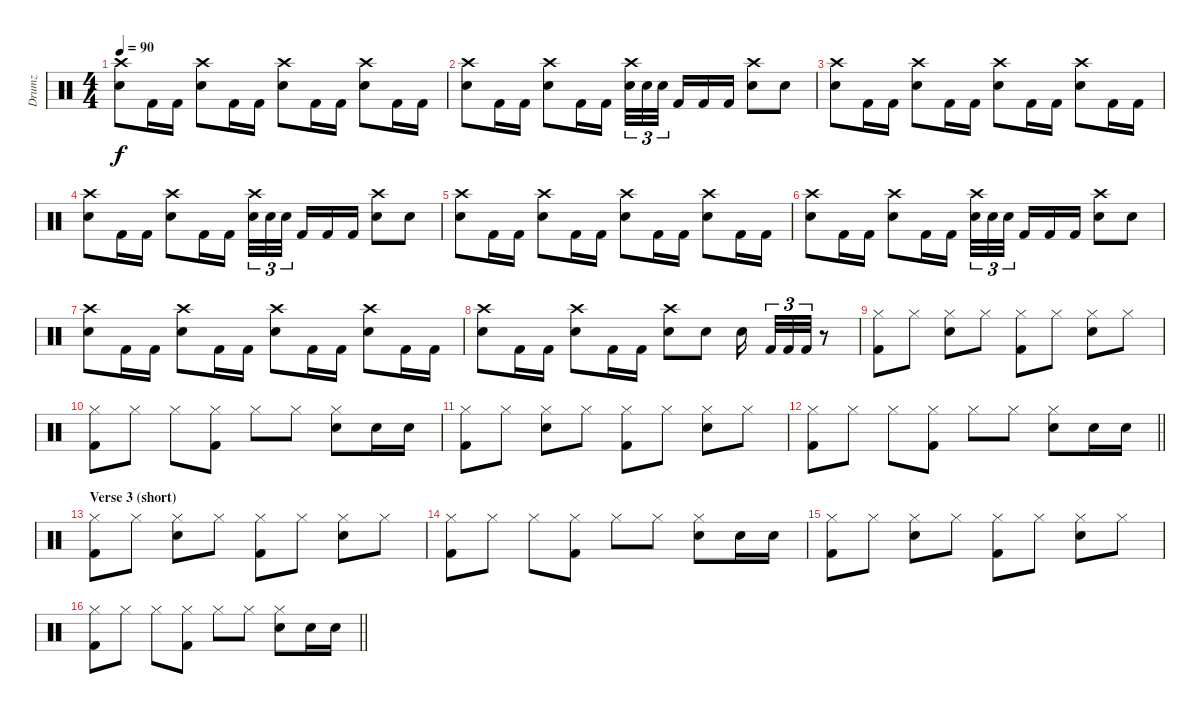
\track ("Drumz" "Drumz") {instrument percussion}
\staff {score}
\articulation defaults
\ts (4 4)
\tempo 90
\clef neutral
\ks c
("Crash high (hit)" "Snare (hit) 2").8{dy f} "Kick (hit) 2".16 "Kick (hit) 2".16 ("Crash high (hit)" "Snare (hit) 2").8 "Kick (hit) 2".16 "Kick (hit) 2".16 ("Crash high (hit)" "Snare (hit) 2").8 "Kick (hit) 2".16 "Kick (hit) 2".16 ("Crash high (hit)" "Snare (hit) 2").8 "Kick (hit) 2".16 "Kick (hit) 2".16 |
("Crash high (hit)" "Snare (hit) 2").8 "Kick (hit) 2".16 "Kick (hit) 2".16 ("Crash high (hit)" "Snare (hit) 2").8 "Kick (hit) 2".16 "Kick (hit) 2".16 ("Crash high (hit)" "Snare (hit) 2").32{tu (3 2)} "Snare (hit) 2".32{tu (3 2)} "Snare (hit) 2".32{tu (3 2) beam splitsecondary} "Kick (hit) 2".16 "Kick (hit) 2".16 "Kick (hit) 2".16 ("Crash high (hit)" "Snare (hit) 2").8 "Snare (hit) 2".8 |
("Crash high (hit)" "Snare (hit) 2").8 "Kick (hit) 2".16 "Kick (hit) 2".16 ("Crash high (hit)" "Snare (hit) 2").8 "Kick (hit) 2".16 "Kick (hit) 2".16 ("Crash high (hit)" "Snare (hit) 2").8 "Kick (hit) 2".16 "Kick (hit) 2".16 ("Crash high (hit)" "Snare (hit) 2").8 "Kick (hit) 2".16 "Kick (hit) 2".16 |
("Crash high (hit)" "Snare (hit) 2").8 "Kick (hit) 2".16 "Kick (hit) 2".16 ("Crash high (hit)" "Snare (hit) 2").8 "Kick (hit) 2".16 "Kick (hit) 2".16 ("Crash high (hit)" "Snare (hit) 2").32{tu (3 2)} "Snare (hit) 2".32{tu (3 2)} "Snare (hit) 2".32{tu (3 2) beam splitsecondary} "Kick (hit) 2".16 "Kick (hit) 2".16 "Kick (hit) 2".16 ("Crash high (hit)" "Snare (hit) 2").8 "Snare (hit) 2".8 |
("Crash high (hit)" "Snare (hit) 2").8 "Kick (hit) 2".16 "Kick (hit) 2".16 ("Crash high (hit)" "Snare (hit) 2").8 "Kick (hit) 2".16 "Kick (hit) 2".16 ("Crash high (hit)" "Snare (hit) 2").8 "Kick (hit) 2".16 "Kick (hit) 2".16 ("Crash high (hit)" "Snare (hit) 2").8 "Kick (hit) 2".16 "Kick (hit) 2".16 |
("Crash high (hit)" "Snare (hit) 2").8 "Kick (hit) 2".16 "Kick (hit) 2".16 ("Crash high (hit)" "Snare (hit) 2").8 "Kick (hit) 2".16 "Kick (hit) 2".16 ("Crash high (hit)" "Snare (hit) 2").32{tu (3 2)} "Snare (hit) 2".32{tu (3 2)} "Snare (hit) 2".32{tu (3 2) beam splitsecondary} "Kick (hit) 2".16 "Kick (hit) 2".16 "Kick (hit) 2".16 ("Crash high (hit)" "Snare (hit) 2").8 "Snare (hit) 2".8 |
("Crash high (hit)" "Snare (hit) 2").8 "Kick (hit) 2".16 "Kick (hit) 2".16 ("Crash high (hit)" "Snare (hit) 2").8 "Kick (hit) 2".16 "Kick (hit) 2".16 ("Crash high (hit)" "Snare (hit) 2").8 "Kick (hit) 2".16 "Kick (hit) 2".16 ("Crash high (hit)" "Snare (hit) 2").8 "Kick (hit) 2".16 "Kick (hit) 2".16 |
("Crash high (hit)" "Snare (hit) 2").8 "Kick (hit) 2".16 "Kick (hit) 2".16 ("Crash high (hit)" "Snare (hit) 2").8 "Kick (hit) 2".16 "Kick (hit) 2".16 ("Crash high (hit)" "Snare (hit) 2").8 "Snare (hit) 2".8 "Snare (hit) 2".16{beam splitsecondary} "Kick (hit) 2".32{tu (3 2)} "Kick (hit) 2".32{tu (3 2)} "Kick (hit) 2".32{tu (3 2)} r.8 |
("Hi-Hat (closed)" "Kick (hit) 2").8 "Hi-Hat (closed)".8 ("Hi-Hat (closed)" "Snare (hit) 2").8 "Hi-Hat (closed)".8 ("Hi-Hat (closed)" "Kick (hit) 2").8 "Hi-Hat (closed)".8 ("Hi-Hat (closed)" "Snare (hit) 2").8 "Hi-Hat (closed)".8 |
("Hi-Hat (closed)" "Kick (hit) 2").8 "Hi-Hat (closed)".8 "Hi-Hat (closed)".8 ("Hi-Hat (closed)" "Kick (hit) 2").8 "Hi-Hat (closed)".8 "Hi-Hat (closed)".8 ("Hi-Hat (closed)" "Snare (hit) 2").8 "Snare (hit) 2".16 "Snare (hit) 2".16 |
("Hi-Hat (closed)" "Kick (hit) 2").8 "Hi-Hat (closed)".8 ("Hi-Hat (closed)" "Snare (hit) 2").8 "Hi-Hat (closed)".8 ("Hi-Hat (closed)" "Kick (hit) 2").8 "Hi-Hat (closed)".8 ("Hi-Hat (closed)" "Snare (hit) 2").8 "Hi-Hat (closed)".8 |
\barLineRight lightlight
("Hi-Hat (closed)" "Kick (hit) 2").8 "Hi-Hat (closed)".8 "Hi-Hat (closed)".8 ("Hi-Hat (closed)" "Kick (hit) 2").8 "Hi-Hat (closed)".8 "Hi-Hat (closed)".8 ("Hi-Hat (closed)" "Snare (hit) 2").8 "Snare (hit) 2".16 "Snare (hit) 2".16 |
\section ("" "Verse 3 (short)")
("Hi-Hat (closed)" "Kick (hit) 2").8 "Hi-Hat (closed)".8 ("Hi-Hat (closed)" "Snare (hit) 2").8 "Hi-Hat (closed)".8 ("Hi-Hat (closed)" "Kick (hit) 2").8 "Hi-Hat (closed)".8 ("Hi-Hat (closed)" "Snare (hit) 2").8 "Hi-Hat (closed)".8 |
("Hi-Hat (closed)" "Kick (hit) 2").8 "Hi-Hat (closed)".8 "Hi-Hat (closed)".8 ("Hi-Hat (closed)" "Kick (hit) 2").8 "Hi-Hat (closed)".8 "Hi-Hat (closed)".8 ("Hi-Hat (closed)" "Snare (hit) 2").8 "Snare (hit) 2".16 "Snare (hit) 2".16 |
("Hi-Hat (closed)" "Kick (hit) 2").8 "Hi-Hat (closed)".8 ("Hi-Hat (closed)" "Snare (hit) 2").8 "Hi-Hat (closed)".8 ("Hi-Hat (closed)" "Kick (hit) 2").8 "Hi-Hat (closed)".8 ("Hi-Hat (closed)" "Snare (hit) 2").8 "Hi-Hat (closed)".8 |
\barLineRight lightlight
("Hi-Hat (closed)" "Kick (hit) 2").8 "Hi-Hat (closed)".8 "Hi-Hat (closed)".8 ("Hi-Hat (closed)" "Kick (hit) 2").8 "Hi-Hat (closed)".8 "Hi-Hat (closed)".8 ("Hi-Hat (closed)" "Snare (hit) 2").8 "Snare (hit) 2".16 "Snare (hit) 2".16
